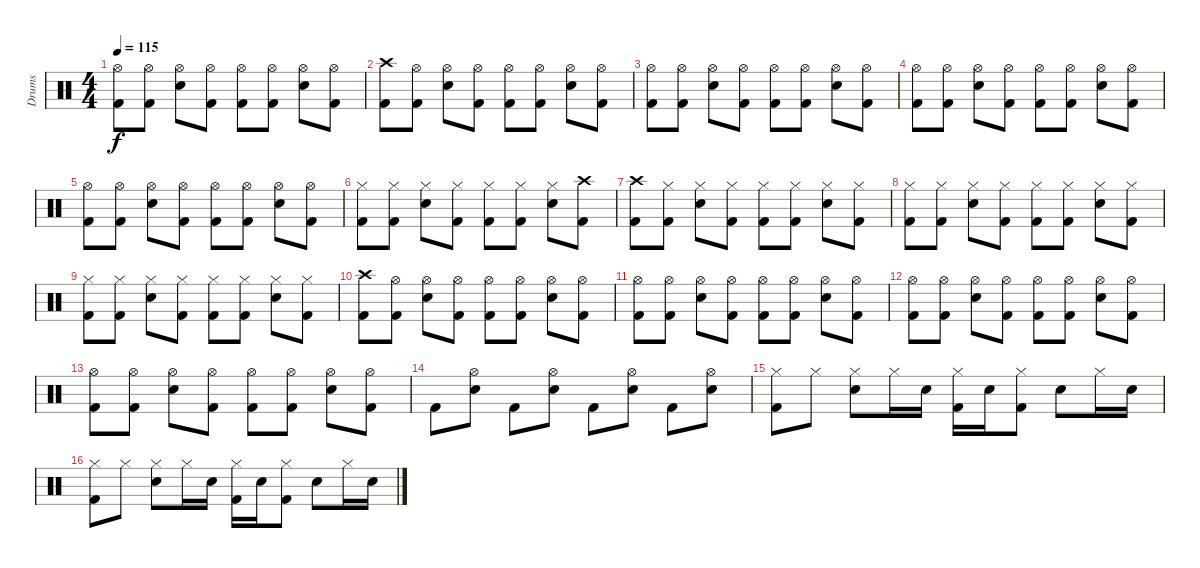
\track ("Drums" "Drums") {instrument percussion}
\staff {score}
\articulation defaults
\ts (4 4)
\tempo 115
\clef neutral
\ks c
("Kick (hit) 2" "Hi-Hat (open)").8{dy f} ("Kick (hit) 2" "Hi-Hat (open)").8 ("Hi-Hat (open)" "Electric Snare (hit)").8 ("Hi-Hat (open)" "Kick (hit) 2").8 ("Hi-Hat (open)" "Kick (hit) 2").8 ("Hi-Hat (open)" "Kick (hit) 2").8 ("Hi-Hat (open)" "Electric Snare (hit)").8 ("Hi-Hat (open)" "Kick (hit) 2").8 |
("Kick (hit) 2" "Crash high (hit)").8 ("Kick (hit) 2" "Hi-Hat (open)").8 ("Electric Snare (hit)" "Hi-Hat (open)").8 ("Kick (hit) 2" "Hi-Hat (open)").8 ("Kick (hit) 2" "Hi-Hat (open)").8 ("Kick (hit) 2" "Hi-Hat (open)").8 ("Electric Snare (hit)" "Hi-Hat (open)").8 ("Hi-Hat (open)" "Kick (hit) 2").8 |
("Kick (hit) 2" "Hi-Hat (open)").8 ("Kick (hit) 2" "Hi-Hat (open)").8 ("Hi-Hat (open)" "Electric Snare (hit)").8 ("Hi-Hat (open)" "Kick (hit) 2").8 ("Hi-Hat (open)" "Kick (hit) 2").8 ("Hi-Hat (open)" "Kick (hit) 2").8 ("Hi-Hat (open)" "Electric Snare (hit)").8 ("Hi-Hat (open)" "Kick (hit) 2").8 |
("Kick (hit) 2" "Hi-Hat (open)").8 ("Kick (hit) 2" "Hi-Hat (open)").8 ("Electric Snare (hit)" "Hi-Hat (open)").8 ("Kick (hit) 2" "Hi-Hat (open)").8 ("Kick (hit) 2" "Hi-Hat (open)").8 ("Kick (hit) 2" "Hi-Hat (open)").8 ("Electric Snare (hit)" "Hi-Hat (open)").8 ("Hi-Hat (open)" "Kick (hit) 2").8 |
("Kick (hit) 2" "Hi-Hat (open)").8 ("Kick (hit) 2" "Hi-Hat (open)").8 ("Hi-Hat (open)" "Electric Snare (hit)").8 ("Hi-Hat (open)" "Kick (hit) 2").8 ("Hi-Hat (open)" "Kick (hit) 2").8 ("Hi-Hat (open)" "Kick (hit) 2").8 ("Hi-Hat (open)" "Electric Snare (hit)").8 ("Hi-Hat (open)" "Kick (hit) 2").8 |
("Kick (hit) 2" "Hi-Hat (closed)").8 ("Kick (hit) 2" "Hi-Hat (closed)").8 ("Hi-Hat (closed)" "Electric Snare (hit)").8 ("Hi-Hat (closed)" "Kick (hit) 2").8 ("Hi-Hat (closed)" "Kick (hit) 2").8 ("Hi-Hat (closed)" "Kick (hit) 2").8 ("Hi-Hat (closed)" "Electric Snare (hit)").8 ("Crash high (hit)" "Kick (hit) 2").8 |
("Kick (hit) 2" "Crash high (hit)").8 ("Kick (hit) 2" "Hi-Hat (closed)").8 ("Electric Snare (hit)" "Hi-Hat (closed)").8 ("Kick (hit) 2" "Hi-Hat (closed)").8 ("Kick (hit) 2" "Hi-Hat (closed)").8 ("Kick (hit) 2" "Hi-Hat (closed)").8 ("Electric Snare (hit)" "Hi-Hat (closed)").8 ("Hi-Hat (closed)" "Kick (hit) 2").8 |
("Kick (hit) 2" "Hi-Hat (closed)").8 ("Kick (hit) 2" "Hi-Hat (closed)").8 ("Hi-Hat (closed)" "Electric Snare (hit)").8 ("Hi-Hat (closed)" "Kick (hit) 2").8 ("Hi-Hat (closed)" "Kick (hit) 2").8 ("Hi-Hat (closed)" "Kick (hit) 2").8 ("Hi-Hat (closed)" "Electric Snare (hit)").8 ("Hi-Hat (closed)" "Kick (hit) 2").8 |
("Kick (hit) 2" "Hi-Hat (closed)").8 ("Kick (hit) 2" "Hi-Hat (closed)").8 ("Electric Snare (hit)" "Hi-Hat (closed)").8 ("Kick (hit) 2" "Hi-Hat (closed)").8 ("Kick (hit) 2" "Hi-Hat (closed)").8 ("Kick (hit) 2" "Hi-Hat (closed)").8 ("Electric Snare (hit)" "Hi-Hat (closed)").8 ("Hi-Hat (closed)" "Kick (hit) 2").8 |
("Kick (hit) 2" "Crash high (hit)").8 ("Kick (hit) 2" "Hi-Hat (open)").8 ("Electric Snare (hit)" "Hi-Hat (open)").8 ("Kick (hit) 2" "Hi-Hat (open)").8 ("Kick (hit) 2" "Hi-Hat (open)").8 ("Kick (hit) 2" "Hi-Hat (open)").8 ("Electric Snare (hit)" "Hi-Hat (open)").8 ("Hi-Hat (open)" "Kick (hit) 2").8 |
("Kick (hit) 2" "Hi-Hat (open)").8 ("Kick (hit) 2" "Hi-Hat (open)").8 ("Hi-Hat (open)" "Electric Snare (hit)").8 ("Hi-Hat (open)" "Kick (hit) 2").8 ("Hi-Hat (open)" "Kick (hit) 2").8 ("Hi-Hat (open)" "Kick (hit) 2").8 ("Hi-Hat (open)" "Electric Snare (hit)").8 ("Hi-Hat (open)" "Kick (hit) 2").8 |
("Kick (hit) 2" "Hi-Hat (open)").8 ("Kick (hit) 2" "Hi-Hat (open)").8 ("Electric Snare (hit)" "Hi-Hat (open)").8 ("Kick (hit) 2" "Hi-Hat (open)").8 ("Kick (hit) 2" "Hi-Hat (open)").8 ("Kick (hit) 2" "Hi-Hat (open)").8 ("Electric Snare (hit)" "Hi-Hat (open)").8 ("Hi-Hat (open)" "Kick (hit) 2").8 |
("Kick (hit) 2" "Hi-Hat (open)").8 ("Kick (hit) 2" "Hi-Hat (open)").8 ("Hi-Hat (open)" "Electric Snare (hit)").8 ("Hi-Hat (open)" "Kick (hit) 2").8 ("Hi-Hat (open)" "Kick (hit) 2").8 ("Hi-Hat (open)" "Kick (hit) 2").8 ("Hi-Hat (open)" "Electric Snare (hit)").8 ("Hi-Hat (open)" "Kick (hit) 2").8 |
"Kick (hit) 2".8 ("Electric Snare (hit)" "Hi-Hat (open)").8 "Kick (hit) 2".8 ("Electric Snare (hit)" "Hi-Hat (open)").8 "Kick (hit) 2".8 ("Electric Snare (hit)" "Hi-Hat (open)").8 "Kick (hit) 2".8 ("Electric Snare (hit)" "Hi-Hat (open)").8 |
("Hi-Hat (closed)" "Kick (hit) 2").8 "Hi-Hat (closed)".8 ("Hi-Hat (closed)" "Electric Snare (hit)").8 "Hi-Hat (closed)".16 "Electric Snare (hit)".16 ("Hi-Hat (closed)" "Kick (hit) 2").16 "Electric Snare (hit)".16 ("Hi-Hat (closed)" "Kick (hit) 2").8 "Electric Snare (hit)".8 "Hi-Hat (closed)".16 "Electric Snare (hit)".16 |
("Hi-Hat (closed)" "Kick (hit) 2").8 "Hi-Hat (closed)".8 ("Hi-Hat (closed)" "Electric Snare (hit)").8 "Hi-Hat (closed)".16 "Electric Snare (hit)".16 ("Hi-Hat (closed)" "Kick (hit) 2").16 "Electric Snare (hit)".16 ("Hi-Hat (closed)" "Kick (hit) 2").8 "Electric Snare (hit)".8 "Hi-Hat (closed)".16 "Electric Snare (hit)".16
